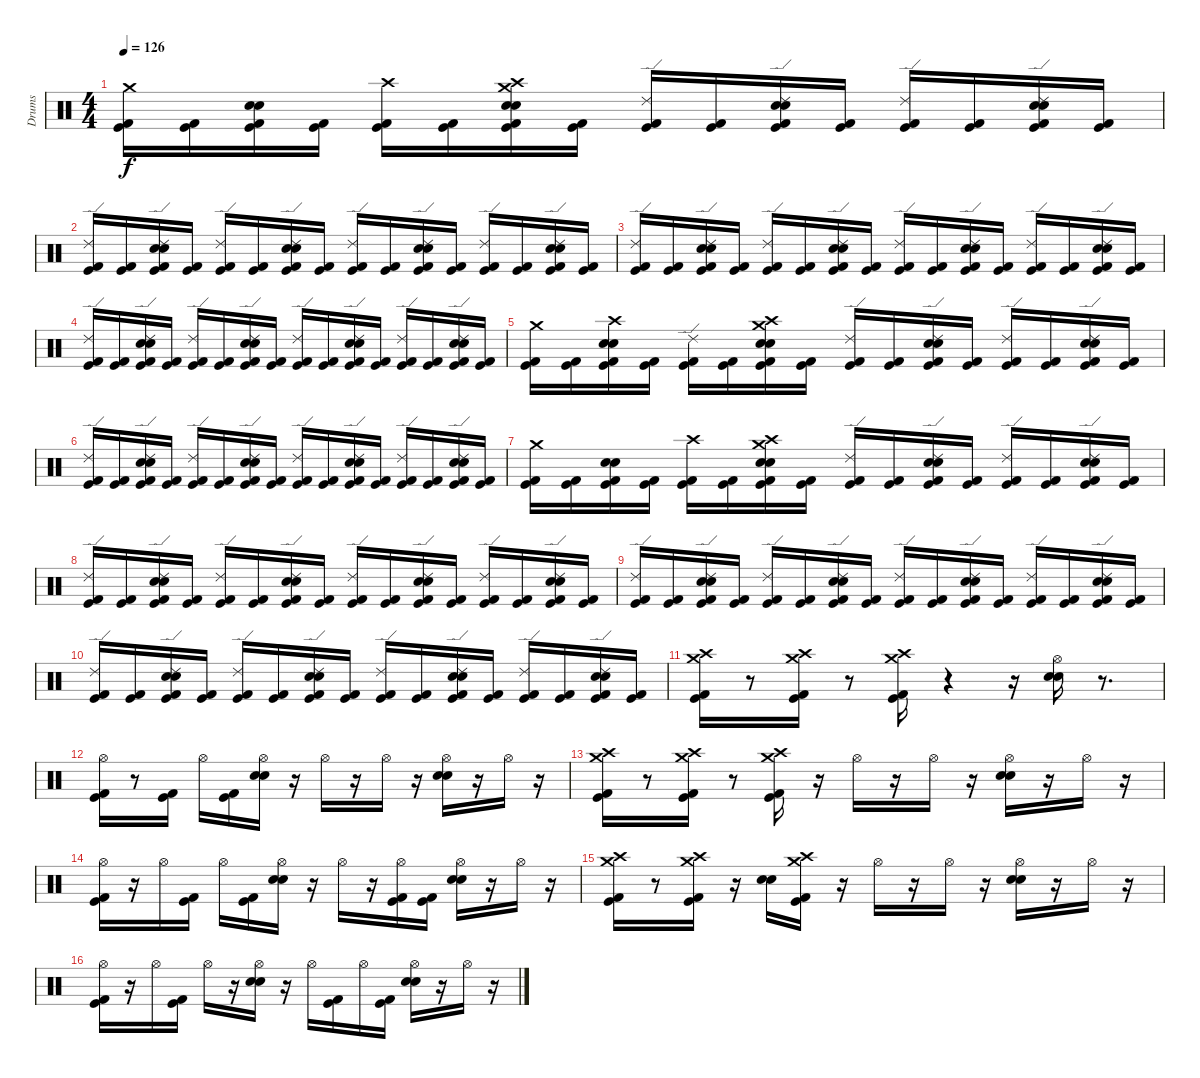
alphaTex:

\track ("Drums" "Drums") {instrument percussion}
\staff {score}
\articulation defaults
\ts (4 4)
\tempo 126
\clef neutral
\ks c
("Crash medium (hit)" "Kick (hit) 2" "Kick (hit)").16{dy f} ("Kick (hit) 2" "Kick (hit)").16 ("Electric Snare (hit)" "Snare (hit) 2" "Kick (hit) 2" "Kick (hit)").16 ("Kick (hit) 2" "Kick (hit)").16 ("Crash high (hit)" "Kick (hit) 2" "Kick (hit)").16 ("Kick (hit) 2" "Kick (hit)").16 ("Crash high (hit)" "Crash medium (hit)" "Electric Snare (hit)" "Snare (hit) 2" "Kick (hit) 2" "Kick (hit)").16 ("Kick (hit) 2" "Kick (hit)").16 ("Ride (edge) 2" "Kick (hit) 2" "Kick (hit)").16 ("Kick (hit) 2" "Kick (hit)").16 ("Electric Snare (hit)" "Snare (hit) 2" "Ride (edge) 2" "Kick (hit) 2" "Kick (hit)").16 ("Kick (hit) 2" "Kick (hit)").16 ("Ride (edge) 2" "Kick (hit) 2" "Kick (hit)").16 ("Kick (hit) 2" "Kick (hit)").16 ("Electric Snare (hit)" "Snare (hit) 2" "Ride (edge) 2" "Kick (hit) 2" "Kick (hit)").16 ("Kick (hit) 2" "Kick (hit)").16 |
("Ride (edge) 2" "Kick (hit) 2" "Kick (hit)").16 ("Kick (hit) 2" "Kick (hit)").16 ("Electric Snare (hit)" "Snare (hit) 2" "Ride (edge) 2" "Kick (hit) 2" "Kick (hit)").16 ("Kick (hit) 2" "Kick (hit)").16 ("Ride (edge) 2" "Kick (hit) 2" "Kick (hit)").16 ("Kick (hit) 2" "Kick (hit)").16 ("Electric Snare (hit)" "Snare (hit) 2" "Ride (edge) 2" "Kick (hit) 2" "Kick (hit)").16 ("Kick (hit) 2" "Kick (hit)").16 ("Ride (edge) 2" "Kick (hit) 2" "Kick (hit)").16 ("Kick (hit) 2" "Kick (hit)").16 ("Electric Snare (hit)" "Snare (hit) 2" "Ride (edge) 2" "Kick (hit) 2" "Kick (hit)").16 ("Kick (hit) 2" "Kick (hit)").16 ("Ride (edge) 2" "Kick (hit) 2" "Kick (hit)").16 ("Kick (hit) 2" "Kick (hit)").16 ("Electric Snare (hit)" "Snare (hit) 2" "Ride (edge) 2" "Kick (hit) 2" "Kick (hit)").16 ("Kick (hit) 2" "Kick (hit)").16 |
("Ride (edge) 2" "Kick (hit) 2" "Kick (hit)").16 ("Kick (hit) 2" "Kick (hit)").16 ("Electric Snare (hit)" "Snare (hit) 2" "Ride (edge) 2" "Kick (hit) 2" "Kick (hit)").16 ("Kick (hit) 2" "Kick (hit)").16 ("Ride (edge) 2" "Kick (hit) 2" "Kick (hit)").16 ("Kick (hit) 2" "Kick (hit)").16 ("Electric Snare (hit)" "Snare (hit) 2" "Ride (edge) 2" "Kick (hit) 2" "Kick (hit)").16 ("Kick (hit) 2" "Kick (hit)").16 ("Ride (edge) 2" "Kick (hit) 2" "Kick (hit)").16 ("Kick (hit) 2" "Kick (hit)").16 ("Electric Snare (hit)" "Snare (hit) 2" "Ride (edge) 2" "Kick (hit) 2" "Kick (hit)").16 ("Kick (hit) 2" "Kick (hit)").16 ("Ride (edge) 2" "Kick (hit) 2" "Kick (hit)").16 ("Kick (hit) 2" "Kick (hit)").16 ("Electric Snare (hit)" "Snare (hit) 2" "Ride (edge) 2" "Kick (hit) 2" "Kick (hit)").16 ("Kick (hit) 2" "Kick (hit)").16 |
("Ride (edge) 2" "Kick (hit) 2" "Kick (hit)").16 ("Kick (hit) 2" "Kick (hit)").16 ("Electric Snare (hit)" "Snare (hit) 2" "Ride (edge) 2" "Kick (hit) 2" "Kick (hit)").16 ("Kick (hit) 2" "Kick (hit)").16 ("Ride (edge) 2" "Kick (hit) 2" "Kick (hit)").16 ("Kick (hit) 2" "Kick (hit)").16 ("Electric Snare (hit)" "Snare (hit) 2" "Ride (edge) 2" "Kick (hit) 2" "Kick (hit)").16 ("Kick (hit) 2" "Kick (hit)").16 ("Ride (edge) 2" "Kick (hit) 2" "Kick (hit)").16 ("Kick (hit) 2" "Kick (hit)").16 ("Electric Snare (hit)" "Snare (hit) 2" "Ride (edge) 2" "Kick (hit) 2" "Kick (hit)").16 ("Kick (hit) 2" "Kick (hit)").16 ("Ride (edge) 2" "Kick (hit) 2" "Kick (hit)").16 ("Kick (hit) 2" "Kick (hit)").16 ("Electric Snare (hit)" "Snare (hit) 2" "Ride (edge) 2" "Kick (hit) 2" "Kick (hit)").16 ("Kick (hit) 2" "Kick (hit)").16 |
("Crash medium (hit)" "Kick (hit) 2" "Kick (hit)").16 ("Kick (hit) 2" "Kick (hit)").16 ("Crash high (hit)" "Electric Snare (hit)" "Snare (hit) 2" "Kick (hit) 2" "Kick (hit)").16 ("Kick (hit) 2" "Kick (hit)").16 ("Ride (edge) 2" "Kick (hit) 2" "Kick (hit)").16 ("Kick (hit) 2" "Kick (hit)").16 ("Crash high (hit)" "Crash medium (hit)" "Electric Snare (hit)" "Snare (hit) 2" "Kick (hit) 2" "Kick (hit)").16 ("Kick (hit) 2" "Kick (hit)").16 ("Ride (edge) 2" "Kick (hit) 2" "Kick (hit)").16 ("Kick (hit) 2" "Kick (hit)").16 ("Electric Snare (hit)" "Snare (hit) 2" "Ride (edge) 2" "Kick (hit) 2" "Kick (hit)").16 ("Kick (hit) 2" "Kick (hit)").16 ("Ride (edge) 2" "Kick (hit) 2" "Kick (hit)").16 ("Kick (hit) 2" "Kick (hit)").16 ("Electric Snare (hit)" "Snare (hit) 2" "Ride (edge) 2" "Kick (hit) 2" "Kick (hit)").16 ("Kick (hit) 2" "Kick (hit)").16 |
("Ride (edge) 2" "Kick (hit) 2" "Kick (hit)").16 ("Kick (hit) 2" "Kick (hit)").16 ("Electric Snare (hit)" "Snare (hit) 2" "Ride (edge) 2" "Kick (hit) 2" "Kick (hit)").16 ("Kick (hit) 2" "Kick (hit)").16 ("Ride (edge) 2" "Kick (hit) 2" "Kick (hit)").16 ("Kick (hit) 2" "Kick (hit)").16 ("Electric Snare (hit)" "Snare (hit) 2" "Ride (edge) 2" "Kick (hit) 2" "Kick (hit)").16 ("Kick (hit) 2" "Kick (hit)").16 ("Ride (edge) 2" "Kick (hit) 2" "Kick (hit)").16 ("Kick (hit) 2" "Kick (hit)").16 ("Electric Snare (hit)" "Snare (hit) 2" "Ride (edge) 2" "Kick (hit) 2" "Kick (hit)").16 ("Kick (hit) 2" "Kick (hit)").16 ("Ride (edge) 2" "Kick (hit) 2" "Kick (hit)").16 ("Kick (hit) 2" "Kick (hit)").16 ("Electric Snare (hit)" "Snare (hit) 2" "Ride (edge) 2" "Kick (hit) 2" "Kick (hit)").16 ("Kick (hit) 2" "Kick (hit)").16 |
("Crash medium (hit)" "Kick (hit) 2" "Kick (hit)").16 ("Kick (hit) 2" "Kick (hit)").16 ("Electric Snare (hit)" "Snare (hit) 2" "Kick (hit) 2" "Kick (hit)").16 ("Kick (hit) 2" "Kick (hit)").16 ("Crash high (hit)" "Kick (hit) 2" "Kick (hit)").16 ("Kick (hit) 2" "Kick (hit)").16 ("Crash high (hit)" "Crash medium (hit)" "Electric Snare (hit)" "Snare (hit) 2" "Kick (hit) 2" "Kick (hit)").16 ("Kick (hit) 2" "Kick (hit)").16 ("Ride (edge) 2" "Kick (hit) 2" "Kick (hit)").16 ("Kick (hit) 2" "Kick (hit)").16 ("Electric Snare (hit)" "Snare (hit) 2" "Ride (edge) 2" "Kick (hit) 2" "Kick (hit)").16 ("Kick (hit) 2" "Kick (hit)").16 ("Ride (edge) 2" "Kick (hit) 2" "Kick (hit)").16 ("Kick (hit) 2" "Kick (hit)").16 ("Electric Snare (hit)" "Snare (hit) 2" "Ride (edge) 2" "Kick (hit) 2" "Kick (hit)").16 ("Kick (hit) 2" "Kick (hit)").16 |
("Ride (edge) 2" "Kick (hit) 2" "Kick (hit)").16 ("Kick (hit) 2" "Kick (hit)").16 ("Electric Snare (hit)" "Snare (hit) 2" "Ride (edge) 2" "Kick (hit) 2" "Kick (hit)").16 ("Kick (hit) 2" "Kick (hit)").16 ("Ride (edge) 2" "Kick (hit) 2" "Kick (hit)").16 ("Kick (hit) 2" "Kick (hit)").16 ("Electric Snare (hit)" "Snare (hit) 2" "Ride (edge) 2" "Kick (hit) 2" "Kick (hit)").16 ("Kick (hit) 2" "Kick (hit)").16 ("Ride (edge) 2" "Kick (hit) 2" "Kick (hit)").16 ("Kick (hit) 2" "Kick (hit)").16 ("Electric Snare (hit)" "Snare (hit) 2" "Ride (edge) 2" "Kick (hit) 2" "Kick (hit)").16 ("Kick (hit) 2" "Kick (hit)").16 ("Ride (edge) 2" "Kick (hit) 2" "Kick (hit)").16 ("Kick (hit) 2" "Kick (hit)").16 ("Electric Snare (hit)" "Snare (hit) 2" "Ride (edge) 2" "Kick (hit) 2" "Kick (hit)").16 ("Kick (hit) 2" "Kick (hit)").16 |
("Ride (edge) 2" "Kick (hit) 2" "Kick (hit)").16 ("Kick (hit) 2" "Kick (hit)").16 ("Electric Snare (hit)" "Snare (hit) 2" "Ride (edge) 2" "Kick (hit) 2" "Kick (hit)").16 ("Kick (hit) 2" "Kick (hit)").16 ("Ride (edge) 2" "Kick (hit) 2" "Kick (hit)").16 ("Kick (hit) 2" "Kick (hit)").16 ("Electric Snare (hit)" "Snare (hit) 2" "Ride (edge) 2" "Kick (hit) 2" "Kick (hit)").16 ("Kick (hit) 2" "Kick (hit)").16 ("Ride (edge) 2" "Kick (hit) 2" "Kick (hit)").16 ("Kick (hit) 2" "Kick (hit)").16 ("Electric Snare (hit)" "Snare (hit) 2" "Ride (edge) 2" "Kick (hit) 2" "Kick (hit)").16 ("Kick (hit) 2" "Kick (hit)").16 ("Ride (edge) 2" "Kick (hit) 2" "Kick (hit)").16 ("Kick (hit) 2" "Kick (hit)").16 ("Electric Snare (hit)" "Snare (hit) 2" "Ride (edge) 2" "Kick (hit) 2" "Kick (hit)").16 ("Kick (hit) 2" "Kick (hit)").16 |
("Ride (edge) 2" "Kick (hit) 2" "Kick (hit)").16 ("Kick (hit) 2" "Kick (hit)").16 ("Electric Snare (hit)" "Snare (hit) 2" "Ride (edge) 2" "Kick (hit) 2" "Kick (hit)").16 ("Kick (hit) 2" "Kick (hit)").16 ("Ride (edge) 2" "Kick (hit) 2" "Kick (hit)").16 ("Kick (hit) 2" "Kick (hit)").16 ("Electric Snare (hit)" "Snare (hit) 2" "Ride (edge) 2" "Kick (hit) 2" "Kick (hit)").16 ("Kick (hit) 2" "Kick (hit)").16 ("Ride (edge) 2" "Kick (hit) 2" "Kick (hit)").16 ("Kick (hit) 2" "Kick (hit)").16 ("Electric Snare (hit)" "Snare (hit) 2" "Ride (edge) 2" "Kick (hit) 2" "Kick (hit)").16 ("Kick (hit) 2" "Kick (hit)").16 ("Ride (edge) 2" "Kick (hit) 2" "Kick (hit)").16 ("Kick (hit)" "Kick (hit) 2").16 ("Ride (edge) 2" "Kick (hit) 2" "Kick (hit)" "Electric Snare (hit)" "Snare (hit) 2").16 ("Kick (hit) 2" "Kick (hit)").16 |
("Crash high (hit)" "Crash medium (hit)" "Kick (hit) 2" "Kick (hit)").16 r.8 ("Crash medium (hit)" "Crash high (hit)" "Kick (hit) 2" "Kick (hit)").16 r.8 ("Crash high (hit)" "Crash medium (hit)" "Kick (hit) 2" "Kick (hit)").16 r.4 r.16 ("Hi-Hat (open)" "Electric Snare (hit)" "Snare (hit) 2").16 r.8{d} |
("Hi-Hat (open)" "Kick (hit) 2" "Kick (hit)").16 r.8 ("Kick (hit) 2" "Kick (hit)").16 "Hi-Hat (open)".16 ("Kick (hit) 2" "Kick (hit)").16 ("Hi-Hat (open)" "Electric Snare (hit)" "Snare (hit) 2").16 r.16 "Hi-Hat (open)".16 r.16 "Hi-Hat (open)".16 r.16 ("Hi-Hat (open)" "Electric Snare (hit)" "Snare (hit) 2").16 r.16 "Hi-Hat (open)".16 r.16 |
("Crash high (hit)" "Crash medium (hit)" "Kick (hit) 2" "Kick (hit)").16 r.8 ("Crash medium (hit)" "Crash high (hit)" "Kick (hit) 2" "Kick (hit)").16 r.8 ("Crash high (hit)" "Crash medium (hit)" "Kick (hit) 2" "Kick (hit)").16 r.16 "Hi-Hat (open)".16 r.16 "Hi-Hat (open)".16 r.16 ("Hi-Hat (open)" "Electric Snare (hit)" "Snare (hit) 2").16 r.16 "Hi-Hat (open)".16 r.16 |
("Hi-Hat (open)" "Kick (hit) 2" "Kick (hit)").16 r.16 "Hi-Hat (open)".16 ("Kick (hit) 2" "Kick (hit)").16 "Hi-Hat (open)".16 ("Kick (hit) 2" "Kick (hit)").16 ("Electric Snare (hit)" "Snare (hit) 2" "Hi-Hat (open)").16 r.16 "Hi-Hat (open)".16 r.16 ("Kick (hit) 2" "Kick (hit)" "Hi-Hat (open)").16 ("Kick (hit)" "Kick (hit) 2").16 ("Electric Snare (hit)" "Snare (hit) 2" "Hi-Hat (open)").16 r.16 "Hi-Hat (open)".16 r.16 |
("Crash high (hit)" "Crash medium (hit)" "Kick (hit) 2" "Kick (hit)").16 r.8 ("Crash medium (hit)" "Crash high (hit)" "Kick (hit) 2" "Kick (hit)").16 r.16 ("Electric Snare (hit)" "Snare (hit) 2").16 ("Crash high (hit)" "Crash medium (hit)" "Kick (hit) 2" "Kick (hit)").16 r.16 "Hi-Hat (open)".16 r.16 "Hi-Hat (open)".16 r.16 ("Electric Snare (hit)" "Snare (hit) 2" "Hi-Hat (open)").16 r.16 "Hi-Hat (open)".16 r.16 |
("Hi-Hat (open)" "Kick (hit) 2" "Kick (hit)").16 r.16 "Hi-Hat (open)".16 ("Kick (hit) 2" "Kick (hit)").16 "Hi-Hat (open)".16 r.16 ("Electric Snare (hit)" "Snare (hit) 2" "Hi-Hat (open)").16 r.16 "Hi-Hat (open)".16 ("Kick (hit) 2" "Kick (hit)").16 "Hi-Hat (open)".16 ("Kick (hit) 2" "Kick (hit)").16 ("Electric Snare (hit)" "Snare (hit) 2" "Hi-Hat (open)").16 r.16 "Hi-Hat (open)".16 r.16
